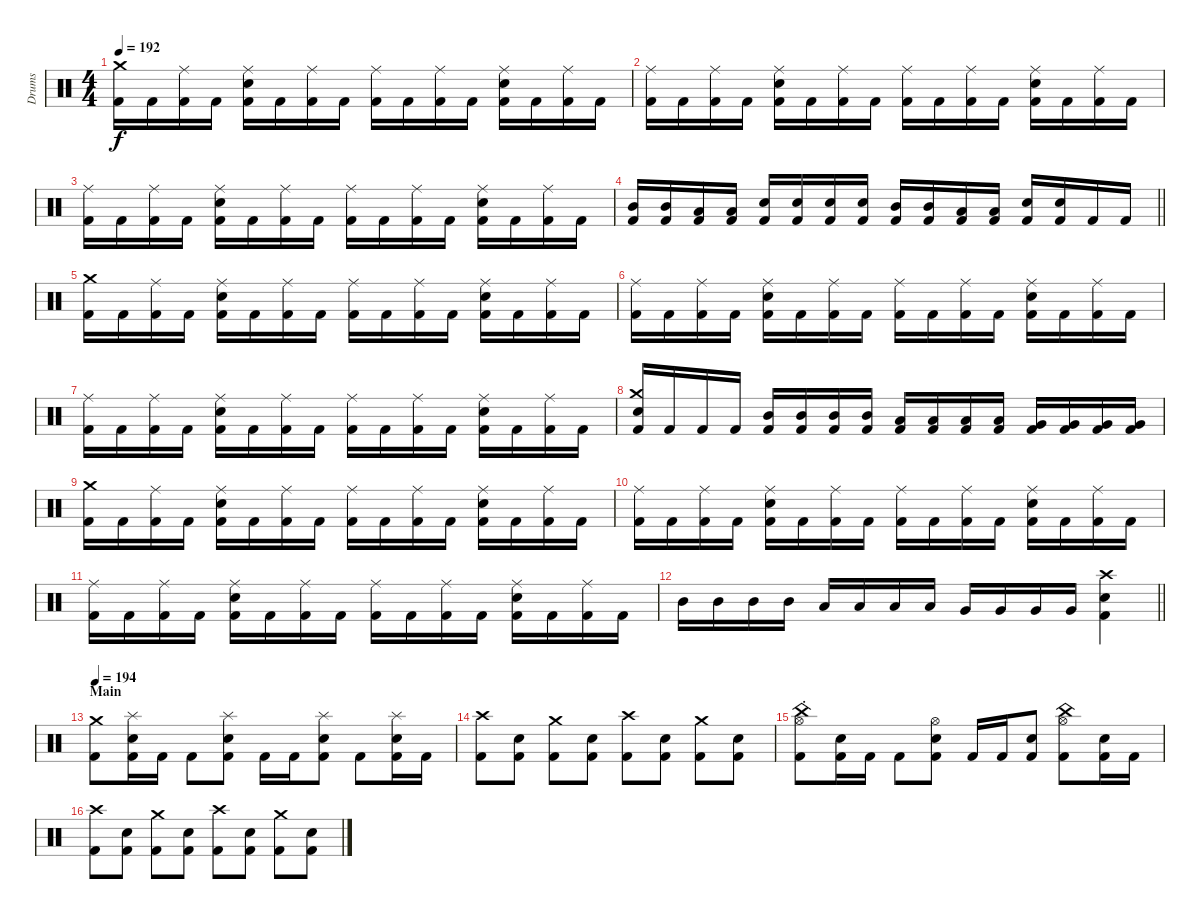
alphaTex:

\track ("Drums" "Drums") {instrument percussion}
\staff {score}
\articulation defaults
\ts (4 4)
\tempo 192
\clef neutral
\ks c
("Kick (hit) 2" "Crash medium (hit)").16{dy f} "Kick (hit) 2".16 ("Kick (hit) 2" "Ride (middle)").16 "Kick (hit) 2".16 ("Kick (hit) 2" "Snare (hit) 2" "Ride (middle)").16 "Kick (hit) 2".16 ("Kick (hit) 2" "Ride (middle)").16 "Kick (hit) 2".16 ("Kick (hit) 2" "Ride (middle)").16 "Kick (hit) 2".16 ("Kick (hit) 2" "Ride (middle)").16 "Kick (hit) 2".16 ("Kick (hit) 2" "Snare (hit) 2" "Ride (middle)").16 "Kick (hit) 2".16 ("Kick (hit) 2" "Ride (middle)").16 "Kick (hit) 2".16 |
("Kick (hit) 2" "Ride (middle)").16 "Kick (hit) 2".16 ("Kick (hit) 2" "Ride (middle)").16 "Kick (hit) 2".16 ("Kick (hit) 2" "Snare (hit) 2" "Ride (middle)").16 "Kick (hit) 2".16 ("Kick (hit) 2" "Ride (middle)").16 "Kick (hit) 2".16 ("Kick (hit) 2" "Ride (middle)").16 "Kick (hit) 2".16 ("Kick (hit) 2" "Ride (middle)").16 "Kick (hit) 2".16 ("Kick (hit) 2" "Snare (hit) 2" "Ride (middle)").16 "Kick (hit) 2".16 ("Kick (hit) 2" "Ride (middle)").16 "Kick (hit) 2".16 |
("Kick (hit) 2" "Ride (middle)").16 "Kick (hit) 2".16 ("Kick (hit) 2" "Ride (middle)").16 "Kick (hit) 2".16 ("Kick (hit) 2" "Snare (hit) 2" "Ride (middle)").16 "Kick (hit) 2".16 ("Kick (hit) 2" "Ride (middle)").16 "Kick (hit) 2".16 ("Kick (hit) 2" "Ride (middle)").16 "Kick (hit) 2".16 ("Kick (hit) 2" "Ride (middle)").16 "Kick (hit) 2".16 ("Kick (hit) 2" "Snare (hit) 2" "Ride (middle)").16 "Kick (hit) 2".16 ("Kick (hit) 2" "Ride (middle)").16 "Kick (hit) 2".16 |
\barLineRight lightlight
("Kick (hit) 2" "Mid Tom (hit)").16 ("Kick (hit) 2" "Mid Tom (hit)").16 ("Kick (hit) 2" "Low Tom (hit)").16 ("Kick (hit) 2" "Low Tom (hit)").16 ("Kick (hit) 2" "Snare (hit) 2").16 ("Kick (hit) 2" "Snare (hit) 2").16 ("Kick (hit) 2" "Snare (hit) 2").16 ("Kick (hit) 2" "Snare (hit) 2").16 ("Kick (hit) 2" "Mid Tom (hit)").16 ("Kick (hit) 2" "Mid Tom (hit)").16 ("Kick (hit) 2" "Low Tom (hit)").16 ("Kick (hit) 2" "Low Tom (hit)").16 ("Kick (hit) 2" "Snare (hit) 2").16 ("Kick (hit) 2" "Snare (hit) 2").16 "Kick (hit) 2".16 "Kick (hit) 2".16 |
\section ("" "")
("Kick (hit) 2" "Crash medium (hit)").16 "Kick (hit) 2".16 ("Kick (hit) 2" "Ride (middle)").16 "Kick (hit) 2".16 ("Kick (hit) 2" "Snare (hit) 2" "Ride (middle)").16 "Kick (hit) 2".16 ("Kick (hit) 2" "Ride (middle)").16 "Kick (hit) 2".16 ("Kick (hit) 2" "Ride (middle)").16 "Kick (hit) 2".16 ("Kick (hit) 2" "Ride (middle)").16 "Kick (hit) 2".16 ("Kick (hit) 2" "Snare (hit) 2" "Ride (middle)").16 "Kick (hit) 2".16 ("Kick (hit) 2" "Ride (middle)").16 "Kick (hit) 2".16 |
("Kick (hit) 2" "Ride (middle)").16 "Kick (hit) 2".16 ("Kick (hit) 2" "Ride (middle)").16 "Kick (hit) 2".16 ("Kick (hit) 2" "Snare (hit) 2" "Ride (middle)").16 "Kick (hit) 2".16 ("Kick (hit) 2" "Ride (middle)").16 "Kick (hit) 2".16 ("Kick (hit) 2" "Ride (middle)").16 "Kick (hit) 2".16 ("Kick (hit) 2" "Ride (middle)").16 "Kick (hit) 2".16 ("Kick (hit) 2" "Snare (hit) 2" "Ride (middle)").16 "Kick (hit) 2".16 ("Kick (hit) 2" "Ride (middle)").16 "Kick (hit) 2".16 |
("Kick (hit) 2" "Ride (middle)").16 "Kick (hit) 2".16 ("Kick (hit) 2" "Ride (middle)").16 "Kick (hit) 2".16 ("Kick (hit) 2" "Snare (hit) 2" "Ride (middle)").16 "Kick (hit) 2".16 ("Kick (hit) 2" "Ride (middle)").16 "Kick (hit) 2".16 ("Kick (hit) 2" "Ride (middle)").16 "Kick (hit) 2".16 ("Kick (hit) 2" "Ride (middle)").16 "Kick (hit) 2".16 ("Kick (hit) 2" "Snare (hit) 2" "Ride (middle)").16 "Kick (hit) 2".16 ("Kick (hit) 2" "Ride (middle)").16 "Kick (hit) 2".16 |
("Kick (hit) 2" "Snare (hit) 2" "Crash medium (hit)").16 "Kick (hit) 2".16 "Kick (hit) 2".16 "Kick (hit) 2".16 ("Kick (hit) 2" "Mid Tom (hit)").16 ("Kick (hit) 2" "Mid Tom (hit)").16 ("Kick (hit) 2" "Mid Tom (hit)").16 ("Kick (hit) 2" "Mid Tom (hit)").16 ("Kick (hit) 2" "Low Tom (hit)").16 ("Kick (hit) 2" "Low Tom (hit)").16 ("Kick (hit) 2" "Low Tom (hit)").16 ("Kick (hit) 2" "Low Tom (hit)").16 ("Kick (hit) 2" "Very Low Tom (hit)").16 ("Kick (hit) 2" "Very Low Tom (hit)").16 ("Kick (hit) 2" "Very Low Tom (hit)").16 ("Kick (hit) 2" "Very Low Tom (hit)").16 |
("Kick (hit) 2" "Crash medium (hit)").16 "Kick (hit) 2".16 ("Kick (hit) 2" "Ride (middle)").16 "Kick (hit) 2".16 ("Kick (hit) 2" "Snare (hit) 2" "Ride (middle)").16 "Kick (hit) 2".16 ("Kick (hit) 2" "Ride (middle)").16 "Kick (hit) 2".16 ("Kick (hit) 2" "Ride (middle)").16 "Kick (hit) 2".16 ("Kick (hit) 2" "Ride (middle)").16 "Kick (hit) 2".16 ("Kick (hit) 2" "Snare (hit) 2" "Ride (middle)").16 "Kick (hit) 2".16 ("Kick (hit) 2" "Ride (middle)").16 "Kick (hit) 2".16 |
("Kick (hit) 2" "Ride (middle)").16 "Kick (hit) 2".16 ("Kick (hit) 2" "Ride (middle)").16 "Kick (hit) 2".16 ("Kick (hit) 2" "Snare (hit) 2" "Ride (middle)").16 "Kick (hit) 2".16 ("Kick (hit) 2" "Ride (middle)").16 "Kick (hit) 2".16 ("Kick (hit) 2" "Ride (middle)").16 "Kick (hit) 2".16 ("Kick (hit) 2" "Ride (middle)").16 "Kick (hit) 2".16 ("Kick (hit) 2" "Snare (hit) 2" "Ride (middle)").16 "Kick (hit) 2".16 ("Kick (hit) 2" "Ride (middle)").16 "Kick (hit) 2".16 |
("Kick (hit) 2" "Ride (middle)").16 "Kick (hit) 2".16 ("Kick (hit) 2" "Ride (middle)").16 "Kick (hit) 2".16 ("Kick (hit) 2" "Snare (hit) 2" "Ride (middle)").16 "Kick (hit) 2".16 ("Kick (hit) 2" "Ride (middle)").16 "Kick (hit) 2".16 ("Kick (hit) 2" "Ride (middle)").16 "Kick (hit) 2".16 ("Kick (hit) 2" "Ride (middle)").16 "Kick (hit) 2".16 ("Kick (hit) 2" "Snare (hit) 2" "Ride (middle)").16 "Kick (hit) 2".16 ("Kick (hit) 2" "Ride (middle)").16 "Kick (hit) 2".16 |
\barLineRight lightlight "Mid Tom (hit)".16 "Mid Tom (hit)".16 "Mid Tom (hit)".16 "Mid Tom (hit)".16 "Low Tom (hit)".16 "Low Tom (hit)".16 "Low Tom (hit)".16 "Low Tom (hit)".16 "Very Low Tom (hit)".16 "Very Low Tom (hit)".16 "Very Low Tom (hit)".16 "Very Low Tom (hit)".16
("Kick (hit) 2" "Snare (hit) 2" "Crash high (hit)").4 |
\section ("" "Main")
\tempo 194
("Kick (hit) 2" "Crash medium (hit)").8 ("Kick (hit) 2" "Snare (hit) 2" "Splash (hit)").16 "Kick (hit) 2".16 "Kick (hit) 2".8 ("Kick (hit) 2" "Snare (hit) 2" "Splash (hit)").8 "Kick (hit) 2".16 "Kick (hit) 2".16 ("Kick (hit) 2" "Snare (hit) 2" "Splash (hit)").8 "Kick (hit) 2".8 ("Kick (hit) 2" "Snare (hit) 2" "Splash (hit)").16 "Kick (hit) 2".16 |
("Kick (hit) 2" "Crash high (hit)").8 ("Kick (hit) 2" "Snare (hit) 2").8 ("Kick (hit) 2" "Crash medium (hit)").8 ("Kick (hit) 2" "Snare (hit) 2").8 ("Kick (hit) 2" "Crash high (hit)").8 ("Kick (hit) 2" "Snare (hit) 2").8 ("Kick (hit) 2" "Crash medium (hit)").8 ("Kick (hit) 2" "Snare (hit) 2").8 |
("Kick (hit) 2" "China (hit)"{st} "Hi-Hat (open)").8 ("Kick (hit) 2" "Snare (hit) 2").16 "Kick (hit) 2".16 "Kick (hit) 2".8 ("Kick (hit) 2" "Snare (hit) 2" "Hi-Hat (open)").8 "Kick (hit) 2".16 "Kick (hit) 2".16 ("Kick (hit) 2" "Snare (hit) 2").8 ("Kick (hit) 2" "China (hit)" "Hi-Hat (open)").8 ("Kick (hit) 2" "Snare (hit) 2").16 "Kick (hit) 2".16 |
("Kick (hit) 2" "Crash high (hit)").8 ("Kick (hit) 2" "Snare (hit) 2").8 ("Kick (hit) 2" "Crash medium (hit)").8 ("Kick (hit) 2" "Snare (hit) 2").8 ("Kick (hit) 2" "Crash high (hit)").8 ("Kick (hit) 2" "Snare (hit) 2").8 ("Kick (hit) 2" "Crash medium (hit)").8 ("Kick (hit) 2" "Snare (hit) 2").8
